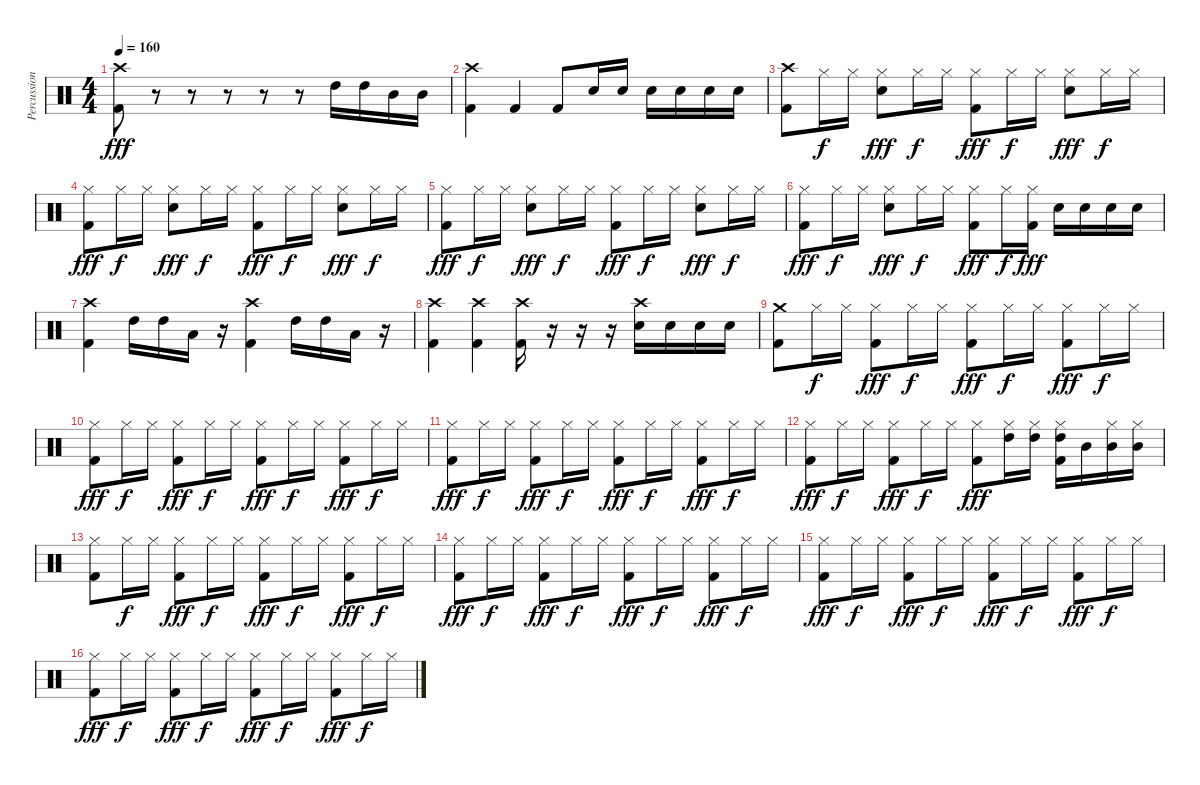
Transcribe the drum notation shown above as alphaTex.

\track ("Percussions" "Percussion") {instrument percussion}
\staff {score}
\articulation defaults
\ts (4 4)
\tempo 160
\clef neutral
\ks c
("Crash high (hit)" "Kick (hit) 2").8{dy fff} r.8 r.8 r.8 r.8 r.8 "High Tom (hit)".16 "High Tom (hit)".16 "Mid Tom (hit)".16 "Mid Tom (hit)".16 |
("Crash high (hit)" "Kick (hit) 2").4 "Kick (hit) 2".4 "Kick (hit) 2".8 "Electric Snare (hit)".16 "Electric Snare (hit)".16 "Electric Snare (hit)".16 "Electric Snare (hit)".16 "Electric Snare (hit)".16 "Electric Snare (hit)".16 |
("Crash high (hit)" "Kick (hit) 2").8 "Hi-Hat (closed)".16{dy f} "Hi-Hat (closed)".16 ("Hi-Hat (closed)" "Electric Snare (hit)").8{dy fff} "Hi-Hat (closed)".16{dy f} "Hi-Hat (closed)".16 ("Hi-Hat (closed)" "Kick (hit) 2").8{dy fff} "Hi-Hat (closed)".16{dy f} "Hi-Hat (closed)".16 ("Hi-Hat (closed)" "Electric Snare (hit)").8{dy fff} "Hi-Hat (closed)".16{dy f} "Hi-Hat (closed)".16 |
("Hi-Hat (closed)" "Kick (hit) 2").8{dy fff} "Hi-Hat (closed)".16{dy f} "Hi-Hat (closed)".16 ("Hi-Hat (closed)" "Electric Snare (hit)").8{dy fff} "Hi-Hat (closed)".16{dy f} "Hi-Hat (closed)".16 ("Hi-Hat (closed)" "Kick (hit) 2").8{dy fff} "Hi-Hat (closed)".16{dy f} "Hi-Hat (closed)".16 ("Hi-Hat (closed)" "Electric Snare (hit)").8{dy fff} "Hi-Hat (closed)".16{dy f} "Hi-Hat (closed)".16 |
("Hi-Hat (closed)" "Kick (hit) 2").8{dy fff} "Hi-Hat (closed)".16{dy f} "Hi-Hat (closed)".16 ("Hi-Hat (closed)" "Electric Snare (hit)").8{dy fff} "Hi-Hat (closed)".16{dy f} "Hi-Hat (closed)".16 ("Hi-Hat (closed)" "Kick (hit) 2").8{dy fff} "Hi-Hat (closed)".16{dy f} "Hi-Hat (closed)".16 ("Hi-Hat (closed)" "Electric Snare (hit)").8{dy fff} "Hi-Hat (closed)".16{dy f} "Hi-Hat (closed)".16 |
("Hi-Hat (closed)" "Kick (hit) 2").8{dy fff} "Hi-Hat (closed)".16{dy f} "Hi-Hat (closed)".16 ("Hi-Hat (closed)" "Electric Snare (hit)").8{dy fff} "Hi-Hat (closed)".16{dy f} "Hi-Hat (closed)".16 ("Hi-Hat (closed)" "Kick (hit) 2").8{dy fff} "Hi-Hat (closed)".16{dy f} ("Hi-Hat (closed)" "Kick (hit) 2").16{dy fff} "Electric Snare (hit)".16 "Electric Snare (hit)".16 "Electric Snare (hit)".16 "Electric Snare (hit)".16 |
("Crash high (hit)" "Kick (hit) 2").4 "High Tom (hit)".16 "High Tom (hit)".16 "Low Tom (hit)".16 r.16 ("Crash high (hit)" "Kick (hit) 2").4 "High Tom (hit)".16 "High Tom (hit)".16 "Low Tom (hit)".16 r.16 |
("Crash high (hit)" "Kick (hit) 2").4 ("Crash high (hit)" "Kick (hit) 2").4 ("Crash high (hit)" "Kick (hit) 2").16 r.16 r.16 r.16 ("Crash high (hit)" "Electric Snare (hit)").16 "Electric Snare (hit)".16 "Electric Snare (hit)".16 "Electric Snare (hit)".16 |
("Crash medium (hit)" "Kick (hit) 2").8 "Hi-Hat (closed)".16{dy f} "Hi-Hat (closed)".16 ("Hi-Hat (closed)" "Kick (hit) 2").8{dy fff} "Hi-Hat (closed)".16{dy f} "Hi-Hat (closed)".16 ("Hi-Hat (closed)" "Kick (hit) 2").8{dy fff} "Hi-Hat (closed)".16{dy f} "Hi-Hat (closed)".16 ("Hi-Hat (closed)" "Kick (hit) 2").8{dy fff} "Hi-Hat (closed)".16{dy f} "Hi-Hat (closed)".16 |
("Hi-Hat (closed)" "Kick (hit) 2").8{dy fff} "Hi-Hat (closed)".16{dy f} "Hi-Hat (closed)".16 ("Hi-Hat (closed)" "Kick (hit) 2").8{dy fff} "Hi-Hat (closed)".16{dy f} "Hi-Hat (closed)".16 ("Hi-Hat (closed)" "Kick (hit) 2").8{dy fff} "Hi-Hat (closed)".16{dy f} "Hi-Hat (closed)".16 ("Hi-Hat (closed)" "Kick (hit) 2").8{dy fff} "Hi-Hat (closed)".16{dy f} "Hi-Hat (closed)".16 |
("Hi-Hat (closed)" "Kick (hit) 2").8{dy fff} "Hi-Hat (closed)".16{dy f} "Hi-Hat (closed)".16 ("Hi-Hat (closed)" "Kick (hit) 2").8{dy fff} "Hi-Hat (closed)".16{dy f} "Hi-Hat (closed)".16 ("Hi-Hat (closed)" "Kick (hit) 2").8{dy fff} "Hi-Hat (closed)".16{dy f} "Hi-Hat (closed)".16 ("Hi-Hat (closed)" "Kick (hit) 2").8{dy fff} "Hi-Hat (closed)".16{dy f} "Hi-Hat (closed)".16 |
("Hi-Hat (closed)" "Kick (hit) 2").8{dy fff} "Hi-Hat (closed)".16{dy f} "Hi-Hat (closed)".16 ("Hi-Hat (closed)" "Kick (hit) 2").8{dy fff} "Hi-Hat (closed)".16{dy f} "Hi-Hat (closed)".16 ("Hi-Hat (closed)" "Kick (hit) 2").8{dy fff} ("Hi-Hat (closed)" "High Tom (hit)").16 ("Hi-Hat (closed)" "High Tom (hit)").16 ("Hi-Hat (closed)" "High Tom (hit)" "Kick (hit) 2").16 "Mid Tom (hit)".16 ("Hi-Hat (closed)" "Mid Tom (hit)").16 ("Hi-Hat (closed)" "Mid Tom (hit)").16 |
("Hi-Hat (closed)" "Kick (hit) 2").8 "Hi-Hat (closed)".16{dy f} "Hi-Hat (closed)".16 ("Hi-Hat (closed)" "Kick (hit) 2").8{dy fff} "Hi-Hat (closed)".16{dy f} "Hi-Hat (closed)".16 ("Hi-Hat (closed)" "Kick (hit) 2").8{dy fff} "Hi-Hat (closed)".16{dy f} "Hi-Hat (closed)".16 ("Hi-Hat (closed)" "Kick (hit) 2").8{dy fff} "Hi-Hat (closed)".16{dy f} "Hi-Hat (closed)".16 |
("Hi-Hat (closed)" "Kick (hit) 2").8{dy fff} "Hi-Hat (closed)".16{dy f} "Hi-Hat (closed)".16 ("Hi-Hat (closed)" "Kick (hit) 2").8{dy fff} "Hi-Hat (closed)".16{dy f} "Hi-Hat (closed)".16 ("Hi-Hat (closed)" "Kick (hit) 2").8{dy fff} "Hi-Hat (closed)".16{dy f} "Hi-Hat (closed)".16 ("Hi-Hat (closed)" "Kick (hit) 2").8{dy fff} "Hi-Hat (closed)".16{dy f} "Hi-Hat (closed)".16 |
("Hi-Hat (closed)" "Kick (hit) 2").8{dy fff} "Hi-Hat (closed)".16{dy f} "Hi-Hat (closed)".16 ("Hi-Hat (closed)" "Kick (hit) 2").8{dy fff} "Hi-Hat (closed)".16{dy f} "Hi-Hat (closed)".16 ("Hi-Hat (closed)" "Kick (hit) 2").8{dy fff} "Hi-Hat (closed)".16{dy f} "Hi-Hat (closed)".16 ("Hi-Hat (closed)" "Kick (hit) 2").8{dy fff} "Hi-Hat (closed)".16{dy f} "Hi-Hat (closed)".16 |
("Hi-Hat (closed)" "Kick (hit) 2").8{dy fff} "Hi-Hat (closed)".16{dy f} "Hi-Hat (closed)".16 ("Hi-Hat (closed)" "Kick (hit) 2").8{dy fff} "Hi-Hat (closed)".16{dy f} "Hi-Hat (closed)".16 ("Hi-Hat (closed)" "Kick (hit) 2").8{dy fff} "Hi-Hat (closed)".16{dy f} "Hi-Hat (closed)".16 ("Hi-Hat (closed)" "Kick (hit) 2").8{dy fff} "Hi-Hat (closed)".16{dy f} "Hi-Hat (closed)".16
